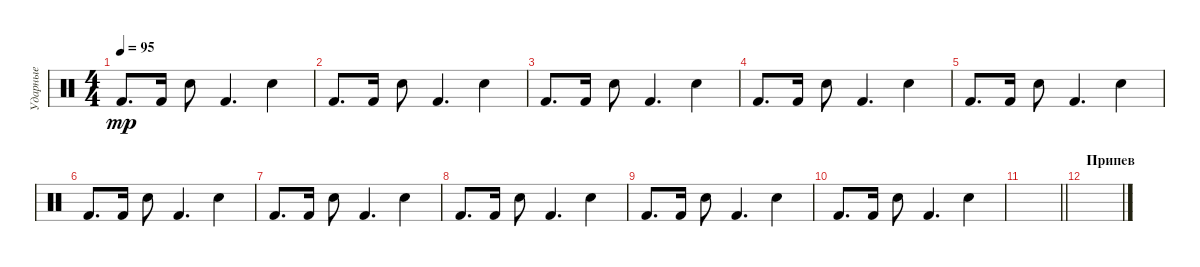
\track ("Ударные" "Ударные") {instrument percussion}
\staff {score}
\articulation defaults
\ts (4 4)
\tempo 95
\clef neutral
\ks c "Kick (hit) 2".8{d dy mp} "Kick (hit) 2".16 "Snare (hit) 2".8 "Kick (hit) 2".4{d} "Snare (hit) 2".4
|
"Kick (hit) 2".8{d} "Kick (hit) 2".16 "Snare (hit) 2".8 "Kick (hit) 2".4{d} "Snare (hit) 2".4 |
"Kick (hit) 2".8{d} "Kick (hit) 2".16 "Snare (hit) 2".8 "Kick (hit) 2".4{d} "Snare (hit) 2".4 |
"Kick (hit) 2".8{d} "Kick (hit) 2".16 "Snare (hit) 2".8 "Kick (hit) 2".4{d} "Snare (hit) 2".4 |
"Kick (hit) 2".8{d} "Kick (hit) 2".16 "Snare (hit) 2".8 "Kick (hit) 2".4{d} "Snare (hit) 2".4 |
"Kick (hit) 2".8{d} "Kick (hit) 2".16 "Snare (hit) 2".8 "Kick (hit) 2".4{d} "Snare (hit) 2".4 |
"Kick (hit) 2".8{d} "Kick (hit) 2".16 "Snare (hit) 2".8 "Kick (hit) 2".4{d} "Snare (hit) 2".4 |
"Kick (hit) 2".8{d} "Kick (hit) 2".16 "Snare (hit) 2".8 "Kick (hit) 2".4{d} "Snare (hit) 2".4 |
"Kick (hit) 2".8{d} "Kick (hit) 2".16 "Snare (hit) 2".8 "Kick (hit) 2".4{d} "Snare (hit) 2".4 |
"Kick (hit) 2".8{d} "Kick (hit) 2".16 "Snare (hit) 2".8 "Kick (hit) 2".4{d} "Snare (hit) 2".4 |
\barLineRight lightlight
|
\section ("" "Припев")
